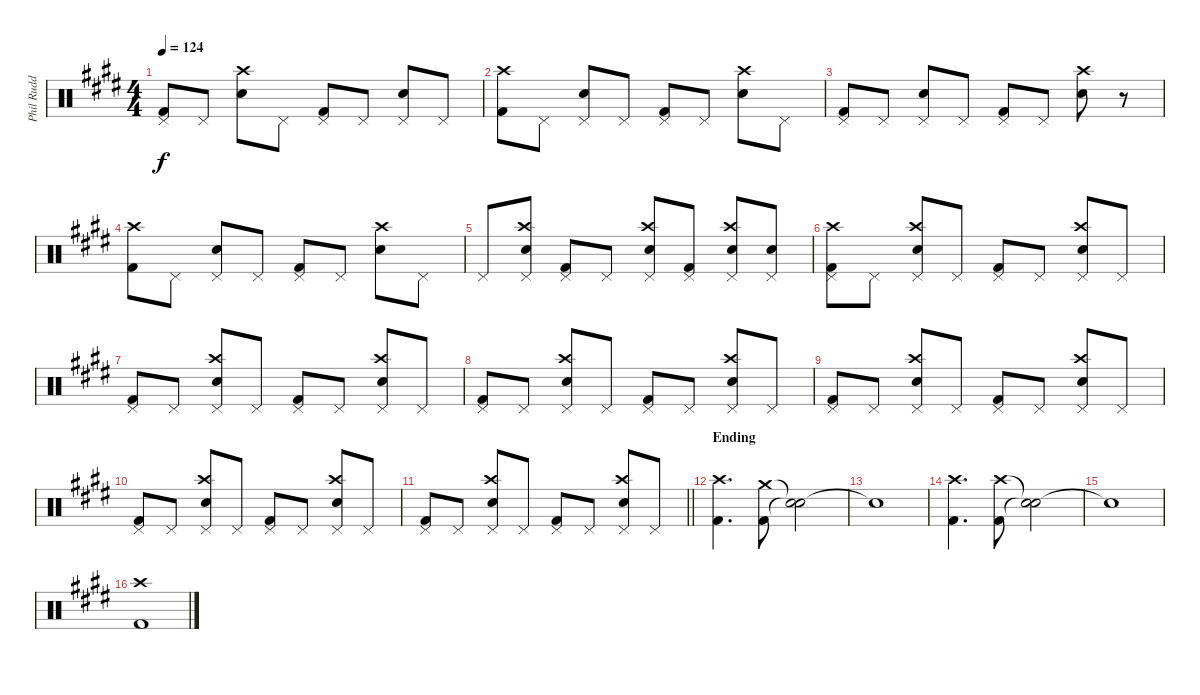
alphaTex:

\track ("Phil Rudd (Drums)" "Phil Rudd ") {instrument percussion}
\staff {score}
\articulation defaults
\ts (4 4)
\tempo 124
\clef neutral
\ks e
("Pedal Hi-Hat (hit)" "Kick (hit) 2").8{dy f} "Pedal Hi-Hat (hit)".8 ("Crash high (hit)" "Snare (hit) 2").8 "Pedal Hi-Hat (hit)".8 ("Pedal Hi-Hat (hit)" "Kick (hit) 2").8 "Pedal Hi-Hat (hit)".8 ("Pedal Hi-Hat (hit)" "Snare (hit) 2").8 "Pedal Hi-Hat (hit)".8 |
("Crash high (hit)" "Kick (hit) 2").8 "Pedal Hi-Hat (hit)".8 ("Pedal Hi-Hat (hit)" "Snare (hit) 2").8 "Pedal Hi-Hat (hit)".8 ("Pedal Hi-Hat (hit)" "Kick (hit) 2").8 "Pedal Hi-Hat (hit)".8 ("Crash high (hit)" "Snare (hit) 2").8 "Pedal Hi-Hat (hit)".8 |
("Pedal Hi-Hat (hit)" "Kick (hit) 2").8 "Pedal Hi-Hat (hit)".8 ("Pedal Hi-Hat (hit)" "Snare (hit) 2").8 "Pedal Hi-Hat (hit)".8 ("Pedal Hi-Hat (hit)" "Kick (hit) 2").8 "Pedal Hi-Hat (hit)".8 ("Crash high (hit)" "Snare (hit) 2").8 r.8 |
("Crash high (hit)" "Kick (hit) 2").8 "Pedal Hi-Hat (hit)".8 ("Pedal Hi-Hat (hit)" "Snare (hit) 2").8 "Pedal Hi-Hat (hit)".8 ("Pedal Hi-Hat (hit)" "Kick (hit) 2").8 "Pedal Hi-Hat (hit)".8 ("Crash high (hit)" "Snare (hit) 2").8 "Pedal Hi-Hat (hit)".8 |
"Pedal Hi-Hat (hit)".8 ("Crash high (hit)" "Pedal Hi-Hat (hit)" "Snare (hit) 2").8 ("Pedal Hi-Hat (hit)" "Kick (hit) 2").8 "Pedal Hi-Hat (hit)".8 ("Crash high (hit)" "Pedal Hi-Hat (hit)" "Snare (hit) 2").8 ("Pedal Hi-Hat (hit)" "Kick (hit) 2").8 ("Crash high (hit)" "Pedal Hi-Hat (hit)" "Snare (hit) 2").8 ("Pedal Hi-Hat (hit)" "Snare (hit) 2").8 |
("Crash high (hit)" "Pedal Hi-Hat (hit)" "Kick (hit) 2").8 "Pedal Hi-Hat (hit)".8 ("Crash high (hit)" "Pedal Hi-Hat (hit)" "Snare (hit) 2").8 "Pedal Hi-Hat (hit)".8 ("Pedal Hi-Hat (hit)" "Kick (hit) 2").8 "Pedal Hi-Hat (hit)".8 ("Crash high (hit)" "Pedal Hi-Hat (hit)" "Snare (hit) 2").8 "Pedal Hi-Hat (hit)".8 |
("Pedal Hi-Hat (hit)" "Kick (hit) 2").8 "Pedal Hi-Hat (hit)".8 ("Crash high (hit)" "Pedal Hi-Hat (hit)" "Snare (hit) 2").8 "Pedal Hi-Hat (hit)".8 ("Pedal Hi-Hat (hit)" "Kick (hit) 2").8 "Pedal Hi-Hat (hit)".8 ("Crash high (hit)" "Pedal Hi-Hat (hit)" "Snare (hit) 2").8 "Pedal Hi-Hat (hit)".8 |
("Pedal Hi-Hat (hit)" "Kick (hit) 2").8 "Pedal Hi-Hat (hit)".8 ("Crash high (hit)" "Pedal Hi-Hat (hit)" "Snare (hit) 2").8 "Pedal Hi-Hat (hit)".8 ("Pedal Hi-Hat (hit)" "Kick (hit) 2").8 "Pedal Hi-Hat (hit)".8 ("Crash high (hit)" "Pedal Hi-Hat (hit)" "Snare (hit) 2").8 "Pedal Hi-Hat (hit)".8 |
("Pedal Hi-Hat (hit)" "Kick (hit) 2").8 "Pedal Hi-Hat (hit)".8 ("Crash high (hit)" "Pedal Hi-Hat (hit)" "Snare (hit) 2").8 "Pedal Hi-Hat (hit)".8 ("Pedal Hi-Hat (hit)" "Kick (hit) 2").8 "Pedal Hi-Hat (hit)".8 ("Crash high (hit)" "Pedal Hi-Hat (hit)" "Snare (hit) 2").8 "Pedal Hi-Hat (hit)".8 |
("Pedal Hi-Hat (hit)" "Kick (hit) 2").8 "Pedal Hi-Hat (hit)".8 ("Crash high (hit)" "Pedal Hi-Hat (hit)" "Snare (hit) 2").8 "Pedal Hi-Hat (hit)".8 ("Pedal Hi-Hat (hit)" "Kick (hit) 2").8 "Pedal Hi-Hat (hit)".8 ("Crash high (hit)" "Pedal Hi-Hat (hit)" "Snare (hit) 2").8 "Pedal Hi-Hat (hit)".8 |
\barLineRight lightlight
("Pedal Hi-Hat (hit)" "Kick (hit) 2").8 "Pedal Hi-Hat (hit)".8 ("Crash high (hit)" "Pedal Hi-Hat (hit)" "Snare (hit) 2").8 "Pedal Hi-Hat (hit)".8 ("Pedal Hi-Hat (hit)" "Kick (hit) 2").8 "Pedal Hi-Hat (hit)".8 ("Crash high (hit)" "Pedal Hi-Hat (hit)" "Snare (hit) 2").8 "Pedal Hi-Hat (hit)".8 |
\section ("" "Ending")
("Crash high (hit)" "Kick (hit) 2").4{d} ("Crash medium (hit)" "Kick (hit) 2").8 ("Snare (hit)"{t} "Snare (hit)"{t}).2 |
"Snare (hit)"{t}.1 |
("Crash high (hit)" "Kick (hit) 2").4{d} ("Crash high (hit)" "Kick (hit) 2").8 ("Snare (hit)"{t} "Snare (hit)"{t}).2 |
"Snare (hit)"{t}.1 |
("Crash high (hit)" "Kick (hit) 2").1
